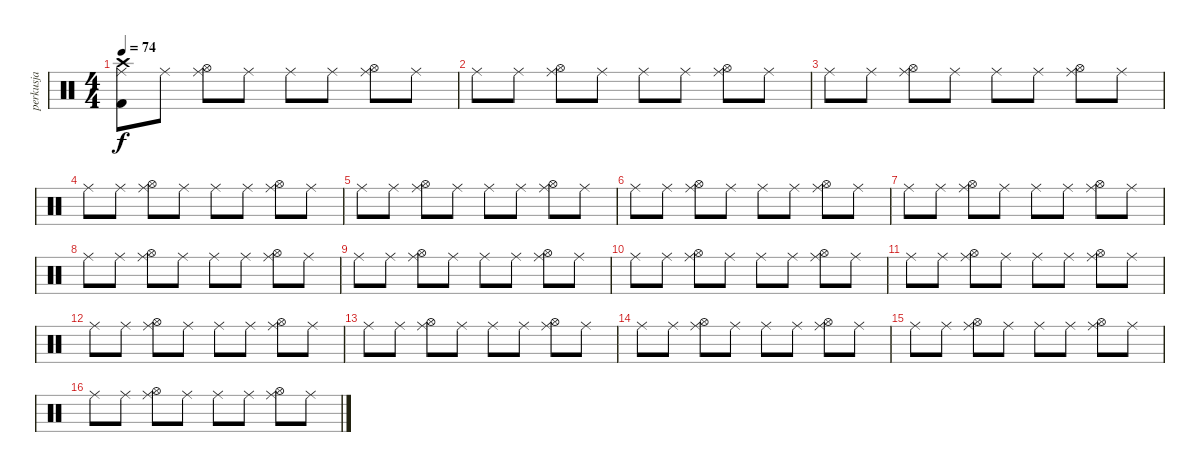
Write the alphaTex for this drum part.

\track ("perkusja" "perkusja") {instrument percussion}
\staff {score}
\articulation defaults
\ts (4 4)
\tempo 74
\clef neutral
\ks c
("Ride (middle)" "Crash high (hit)" "Kick (hit) 2").8{dy f} "Ride (middle)".8 ("Ride (middle)" "Hi-Hat (open)").8 "Ride (middle)".8 "Ride (middle)".8 "Ride (middle)".8 ("Ride (middle)" "Hi-Hat (open)").8 "Ride (middle)".8 |
"Ride (middle)".8 "Ride (middle)".8 ("Ride (middle)" "Hi-Hat (open)").8 "Ride (middle)".8 "Ride (middle)".8 "Ride (middle)".8 ("Ride (middle)" "Hi-Hat (open)").8 "Ride (middle)".8 |
"Ride (middle)".8 "Ride (middle)".8 ("Ride (middle)" "Hi-Hat (open)").8 "Ride (middle)".8 "Ride (middle)".8 "Ride (middle)".8 ("Ride (middle)" "Hi-Hat (open)").8 "Ride (middle)".8 |
"Ride (middle)".8 "Ride (middle)".8 ("Ride (middle)" "Hi-Hat (open)").8 "Ride (middle)".8 "Ride (middle)".8 "Ride (middle)".8 ("Ride (middle)" "Hi-Hat (open)").8 "Ride (middle)".8 |
"Ride (middle)".8 "Ride (middle)".8 ("Ride (middle)" "Hi-Hat (open)").8 "Ride (middle)".8 "Ride (middle)".8 "Ride (middle)".8 ("Ride (middle)" "Hi-Hat (open)").8 "Ride (middle)".8 |
"Ride (middle)".8 "Ride (middle)".8 ("Ride (middle)" "Hi-Hat (open)").8 "Ride (middle)".8 "Ride (middle)".8 "Ride (middle)".8 ("Ride (middle)" "Hi-Hat (open)").8 "Ride (middle)".8 |
"Ride (middle)".8 "Ride (middle)".8 ("Ride (middle)" "Hi-Hat (open)").8 "Ride (middle)".8 "Ride (middle)".8 "Ride (middle)".8 ("Ride (middle)" "Hi-Hat (open)").8 "Ride (middle)".8 |
"Ride (middle)".8 "Ride (middle)".8 ("Ride (middle)" "Hi-Hat (open)").8 "Ride (middle)".8 "Ride (middle)".8 "Ride (middle)".8 ("Ride (middle)" "Hi-Hat (open)").8 "Ride (middle)".8 |
"Ride (middle)".8 "Ride (middle)".8 ("Ride (middle)" "Hi-Hat (open)").8 "Ride (middle)".8 "Ride (middle)".8 "Ride (middle)".8 ("Ride (middle)" "Hi-Hat (open)").8 "Ride (middle)".8 |
"Ride (middle)".8 "Ride (middle)".8 ("Ride (middle)" "Hi-Hat (open)").8 "Ride (middle)".8 "Ride (middle)".8 "Ride (middle)".8 ("Ride (middle)" "Hi-Hat (open)").8 "Ride (middle)".8 |
"Ride (middle)".8 "Ride (middle)".8 ("Ride (middle)" "Hi-Hat (open)").8 "Ride (middle)".8 "Ride (middle)".8 "Ride (middle)".8 ("Ride (middle)" "Hi-Hat (open)").8 "Ride (middle)".8 |
"Ride (middle)".8 "Ride (middle)".8 ("Ride (middle)" "Hi-Hat (open)").8 "Ride (middle)".8 "Ride (middle)".8 "Ride (middle)".8 ("Ride (middle)" "Hi-Hat (open)").8 "Ride (middle)".8 |
"Ride (middle)".8 "Ride (middle)".8 ("Ride (middle)" "Hi-Hat (open)").8 "Ride (middle)".8 "Ride (middle)".8 "Ride (middle)".8 ("Ride (middle)" "Hi-Hat (open)").8 "Ride (middle)".8 |
"Ride (middle)".8 "Ride (middle)".8 ("Ride (middle)" "Hi-Hat (open)").8 "Ride (middle)".8 "Ride (middle)".8 "Ride (middle)".8 ("Ride (middle)" "Hi-Hat (open)").8 "Ride (middle)".8 |
"Ride (middle)".8 "Ride (middle)".8 ("Ride (middle)" "Hi-Hat (open)").8 "Ride (middle)".8 "Ride (middle)".8 "Ride (middle)".8 ("Ride (middle)" "Hi-Hat (open)").8 "Ride (middle)".8 |
"Ride (middle)".8 "Ride (middle)".8 ("Ride (middle)" "Hi-Hat (open)").8 "Ride (middle)".8 "Ride (middle)".8 "Ride (middle)".8 ("Ride (middle)" "Hi-Hat (open)").8 "Ride (middle)".8
